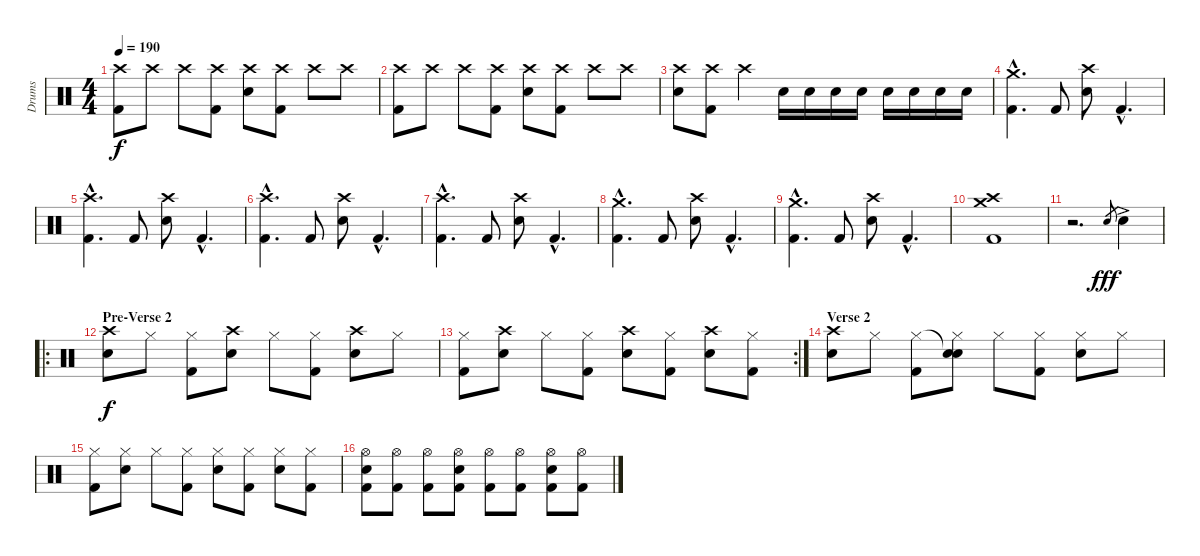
\track ("Drums" "Drums") {instrument percussion}
\staff {score}
\articulation defaults
\ts (4 4)
\tempo 190
\clef neutral
\ks c
("Crash high (hit)" "Kick (hit) 2").8{dy f} "Crash high (hit)".8 "Crash high (hit)".8 ("Crash high (hit)" "Kick (hit) 2").8 ("Crash high (hit)" "Electric Snare (hit)").8 ("Crash high (hit)" "Kick (hit) 2").8 "Crash high (hit)".8 "Crash high (hit)".8 |
("Crash high (hit)" "Kick (hit) 2").8 "Crash high (hit)".8 "Crash high (hit)".8 ("Crash high (hit)" "Kick (hit) 2").8 ("Crash high (hit)" "Electric Snare (hit)").8 ("Crash high (hit)" "Kick (hit) 2").8 "Crash high (hit)".8 "Crash high (hit)".8 |
("Crash high (hit)" "Electric Snare (hit)").8 ("Crash high (hit)" "Kick (hit) 2").8 "Crash high (hit)".4 "Electric Snare (hit)".16 "Electric Snare (hit)".16 "Electric Snare (hit)".16 "Electric Snare (hit)".16 "Electric Snare (hit)".16 "Electric Snare (hit)".16 "Electric Snare (hit)".16 "Electric Snare (hit)".16 |
("Crash medium (hit)"{hac} "Kick (hit) 2"{hac}).4{d} "Kick (hit) 2".8 ("Crash high (hit)" "Electric Snare (hit)").8 "Kick (hit) 2"{hac}.4{d} |
("Crash high (hit)"{hac} "Kick (hit) 2"{hac}).4{d} "Kick (hit) 2".8 ("Crash high (hit)" "Electric Snare (hit)").8 "Kick (hit) 2"{hac}.4{d} |
("Crash high (hit)"{hac} "Kick (hit) 2"{hac}).4{d} "Kick (hit) 2".8 ("Crash high (hit)" "Electric Snare (hit)").8 "Kick (hit) 2"{hac}.4{d} |
("Crash high (hit)"{hac} "Kick (hit) 2"{hac}).4{d} "Kick (hit) 2".8 ("Crash high (hit)" "Electric Snare (hit)").8 "Kick (hit) 2"{hac}.4{d} |
("Crash medium (hit)"{hac} "Kick (hit) 2"{hac}).4{d} "Kick (hit) 2".8 ("Crash high (hit)" "Electric Snare (hit)").8 "Kick (hit) 2"{hac}.4{d} |
("Crash medium (hit)"{hac} "Kick (hit) 2"{hac}).4{d} "Kick (hit) 2".8 ("Crash high (hit)" "Electric Snare (hit)").8 "Kick (hit) 2"{hac}.4{d} |
("Crash medium (hit)" "Crash high (hit)" "Kick (hit) 2").1 |
r.2{d} "Electric Snare (hit)".8{gr dy fff} "Electric Snare (hit)"{ac}.4 |
\ro
\section ("" "Pre-Verse 2")
("Crash high (hit)" "Electric Snare (hit)").8{dy f} "Hi-Hat (closed)".8 ("Hi-Hat (closed)" "Kick (hit) 2").8 ("Crash high (hit)" "Electric Snare (hit)").8 "Hi-Hat (closed)".8 ("Hi-Hat (closed)" "Kick (hit) 2").8 ("Crash high (hit)" "Electric Snare (hit)").8 "Hi-Hat (closed)".8 |
\rc 2
("Hi-Hat (closed)" "Kick (hit) 2").8 ("Crash high (hit)" "Electric Snare (hit)").8 "Hi-Hat (closed)".8 ("Hi-Hat (closed)" "Kick (hit) 2").8 ("Crash high (hit)" "Electric Snare (hit)").8 ("Hi-Hat (closed)" "Kick (hit) 2").8 ("Crash high (hit)" "Electric Snare (hit)").8 ("Hi-Hat (closed)" "Kick (hit) 2").8 |
\section ("" "Verse 2")
("Crash high (hit)" "Electric Snare (hit)").8 "Hi-Hat (closed)".8 ("Hi-Hat (closed)" "Kick (hit) 2").8 ("Snare (hit)"{t} "Hi-Hat (closed)" "Electric Snare (hit)").8 "Hi-Hat (closed)".8 ("Hi-Hat (closed)" "Kick (hit) 2").8 ("Hi-Hat (closed)" "Electric Snare (hit)").8 "Hi-Hat (closed)".8 |
("Hi-Hat (closed)" "Kick (hit) 2").8 ("Hi-Hat (closed)" "Electric Snare (hit)").8 "Hi-Hat (closed)".8 ("Hi-Hat (closed)" "Kick (hit) 2").8 ("Hi-Hat (closed)" "Electric Snare (hit)").8 ("Hi-Hat (closed)" "Kick (hit) 2").8 ("Hi-Hat (closed)" "Electric Snare (hit)").8 ("Hi-Hat (closed)" "Kick (hit) 2").8 |
("Hi-Hat (open)" "Electric Snare (hit)" "Kick (hit) 2").8 ("Hi-Hat (open)" "Kick (hit) 2").8 ("Hi-Hat (open)" "Kick (hit) 2").8 ("Hi-Hat (open)" "Electric Snare (hit)" "Kick (hit) 2").8 ("Hi-Hat (open)" "Kick (hit) 2").8 ("Hi-Hat (open)" "Kick (hit) 2").8 ("Hi-Hat (open)" "Electric Snare (hit)" "Kick (hit) 2").8 ("Hi-Hat (open)" "Kick (hit) 2").8
